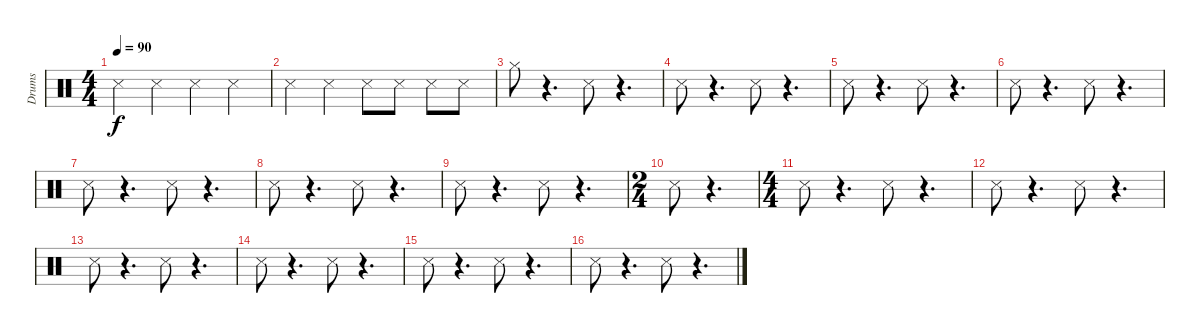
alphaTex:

\track ("Drums" "Drums") {instrument percussion}
\staff {score}
\articulation defaults
\ts (4 4)
\tempo 90
\clef neutral
\ks c "Snare (side stick) 3".4{dy f} "Snare (side stick) 3".4 "Snare (side stick) 3".4 "Snare (side stick) 3".4
|
"Snare (side stick) 3".4 "Snare (side stick) 3".4 "Snare (side stick) 3".8 "Snare (side stick) 3".8 "Snare (side stick) 3".8 "Snare (side stick) 3".8 |
"Hi-Hat (closed)".8 r.4{d} "Snare (side stick) 3".8 r.4{d} |
"Snare (side stick) 3".8 r.4{d} "Snare (side stick) 3".8 r.4{d} |
"Snare (side stick) 3".8 r.4{d} "Snare (side stick) 3".8 r.4{d} |
"Snare (side stick) 3".8 r.4{d} "Snare (side stick) 3".8 r.4{d} |
"Snare (side stick) 3".8 r.4{d} "Snare (side stick) 3".8 r.4{d} |
"Snare (side stick) 3".8 r.4{d} "Snare (side stick) 3".8 r.4{d} |
"Snare (side stick) 3".8 r.4{d} "Snare (side stick) 3".8 r.4{d} |
\ts (2 4)
"Snare (side stick) 3".8 r.4{d} |
\ts (4 4)
"Snare (side stick) 3".8 r.4{d} "Snare (side stick) 3".8 r.4{d} |
"Snare (side stick) 3".8 r.4{d} "Snare (side stick) 3".8 r.4{d} |
"Snare (side stick) 3".8 r.4{d} "Snare (side stick) 3".8 r.4{d} |
"Snare (side stick) 3".8 r.4{d} "Snare (side stick) 3".8 r.4{d} |
"Snare (side stick) 3".8 r.4{d} "Snare (side stick) 3".8 r.4{d} |
"Snare (side stick) 3".8 r.4{d} "Snare (side stick) 3".8 r.4{d}
